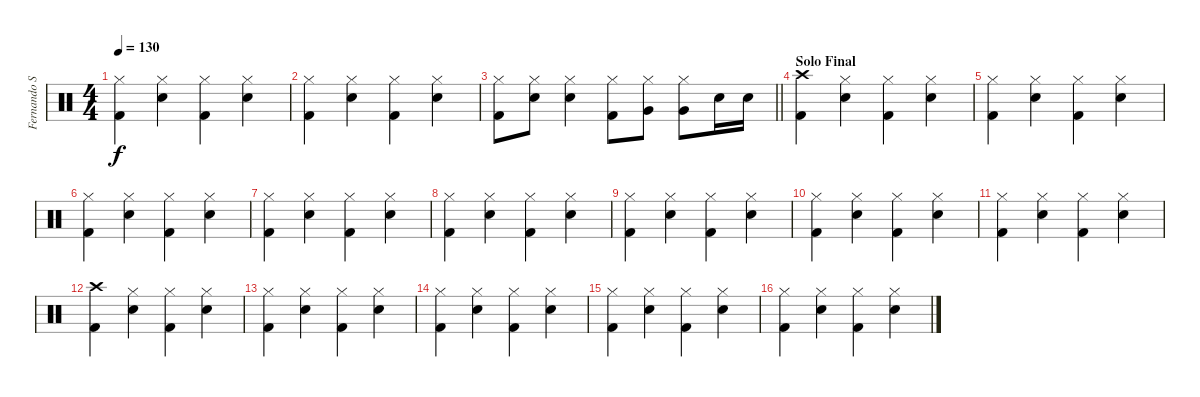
\track ("Fernando Scarcella" "Fernando S") {instrument percussion}
\staff {score}
\articulation defaults
\ts (4 4)
\tempo 130
\clef neutral
\ks c
("Hi-Hat (closed)" "Kick (hit) 2").4{dy f} ("Hi-Hat (closed)" "Snare (hit) 2").4 ("Hi-Hat (closed)" "Kick (hit) 2").4 ("Hi-Hat (closed)" "Snare (hit) 2").4 |
("Hi-Hat (closed)" "Kick (hit) 2").4 ("Hi-Hat (closed)" "Snare (hit) 2").4 ("Hi-Hat (closed)" "Kick (hit) 2").4 ("Hi-Hat (closed)" "Snare (hit) 2").4 |
\barLineRight lightlight
("Hi-Hat (closed)" "Kick (hit) 2").8 ("Hi-Hat (closed)" "Snare (hit) 2").8 ("Hi-Hat (closed)" "Snare (hit) 2").4 ("Hi-Hat (closed)" "Kick (hit) 2").8 ("Hi-Hat (closed)" "Very Low Tom (hit)").8 ("Hi-Hat (closed)" "Very Low Tom (hit)").8 "Snare (hit) 2".16 "Snare (hit) 2".16 |
\section ("" "Solo Final")
("Crash high (hit)" "Kick (hit) 2").4 ("Hi-Hat (closed)" "Snare (hit) 2").4 ("Hi-Hat (closed)" "Kick (hit) 2").4 ("Hi-Hat (closed)" "Snare (hit) 2").4 |
("Hi-Hat (closed)" "Kick (hit) 2").4 ("Hi-Hat (closed)" "Snare (hit) 2").4 ("Hi-Hat (closed)" "Kick (hit) 2").4 ("Hi-Hat (closed)" "Snare (hit) 2").4 |
("Hi-Hat (closed)" "Kick (hit) 2").4 ("Hi-Hat (closed)" "Snare (hit) 2").4 ("Hi-Hat (closed)" "Kick (hit) 2").4 ("Hi-Hat (closed)" "Snare (hit) 2").4 |
("Hi-Hat (closed)" "Kick (hit) 2").4 ("Hi-Hat (closed)" "Snare (hit) 2").4 ("Hi-Hat (closed)" "Kick (hit) 2").4 ("Hi-Hat (closed)" "Snare (hit) 2").4 |
("Hi-Hat (closed)" "Kick (hit) 2").4 ("Hi-Hat (closed)" "Snare (hit) 2").4 ("Hi-Hat (closed)" "Kick (hit) 2").4 ("Hi-Hat (closed)" "Snare (hit) 2").4 |
("Hi-Hat (closed)" "Kick (hit) 2").4 ("Hi-Hat (closed)" "Snare (hit) 2").4 ("Hi-Hat (closed)" "Kick (hit) 2").4 ("Hi-Hat (closed)" "Snare (hit) 2").4 |
("Hi-Hat (closed)" "Kick (hit) 2").4 ("Hi-Hat (closed)" "Snare (hit) 2").4 ("Hi-Hat (closed)" "Kick (hit) 2").4 ("Hi-Hat (closed)" "Snare (hit) 2").4 |
("Hi-Hat (closed)" "Kick (hit) 2").4 ("Hi-Hat (closed)" "Snare (hit) 2").4 ("Hi-Hat (closed)" "Kick (hit) 2").4 ("Hi-Hat (closed)" "Snare (hit) 2").4 |
("Crash high (hit)" "Kick (hit) 2").4 ("Hi-Hat (closed)" "Snare (hit) 2").4 ("Hi-Hat (closed)" "Kick (hit) 2").4 ("Hi-Hat (closed)" "Snare (hit) 2").4 |
("Hi-Hat (closed)" "Kick (hit) 2").4 ("Hi-Hat (closed)" "Snare (hit) 2").4 ("Hi-Hat (closed)" "Kick (hit) 2").4 ("Hi-Hat (closed)" "Snare (hit) 2").4 |
("Hi-Hat (closed)" "Kick (hit) 2").4 ("Hi-Hat (closed)" "Snare (hit) 2").4 ("Hi-Hat (closed)" "Kick (hit) 2").4 ("Hi-Hat (closed)" "Snare (hit) 2").4 |
("Hi-Hat (closed)" "Kick (hit) 2").4 ("Hi-Hat (closed)" "Snare (hit) 2").4 ("Hi-Hat (closed)" "Kick (hit) 2").4 ("Hi-Hat (closed)" "Snare (hit) 2").4 |
("Hi-Hat (closed)" "Kick (hit) 2").4 ("Hi-Hat (closed)" "Snare (hit) 2").4 ("Hi-Hat (closed)" "Kick (hit) 2").4 ("Hi-Hat (closed)" "Snare (hit) 2").4
